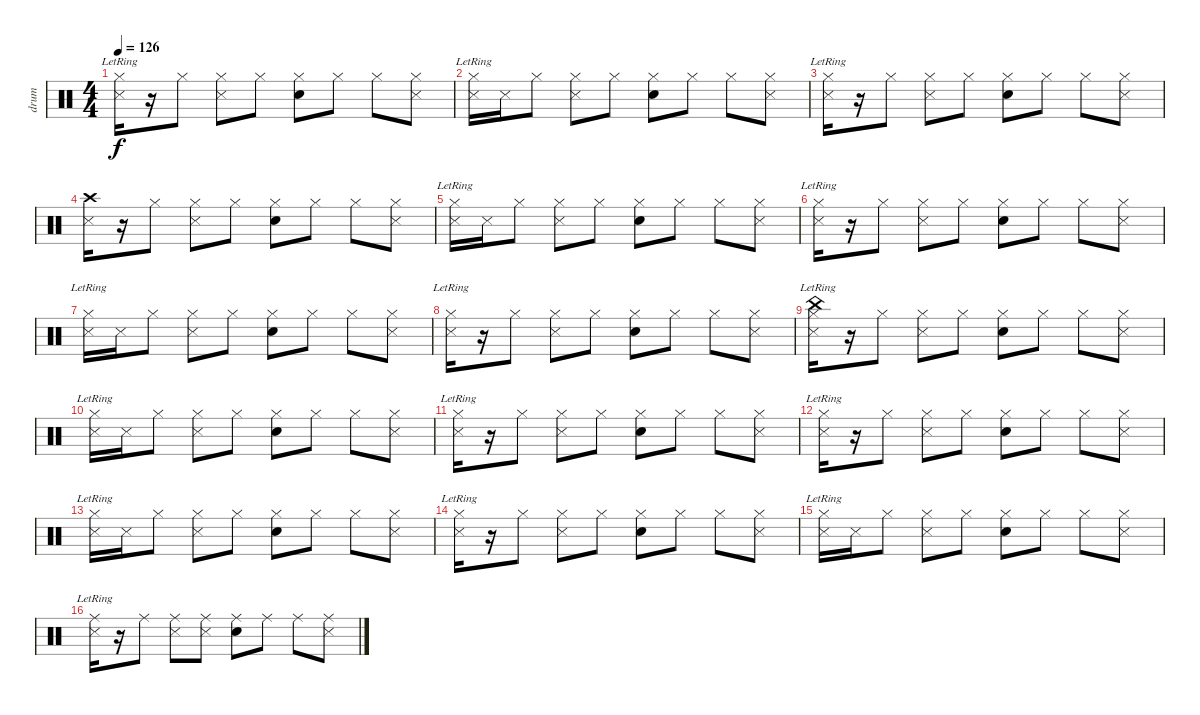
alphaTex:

\track ("drum" "drum") {instrument percussion}
\staff {score}
\articulation defaults
\ts (4 4)
\tempo 126
\clef neutral
\ks c
("Hi-Hat (closed)"{lr} "Metronome (hit)").16{dy f} r.16 "Hi-Hat (closed)".8 ("Hi-Hat (closed)" "Metronome (hit)").8 "Hi-Hat (closed)".8 ("Hi-Hat (closed)" "Snare (hit) 2").8 "Hi-Hat (closed)".8 "Hi-Hat (closed)".8 ("Hi-Hat (closed)" "Metronome (hit)").8 |
("Hi-Hat (closed)"{lr} "Metronome (hit)").16 "Metronome (hit)".16 "Hi-Hat (closed)".8 ("Hi-Hat (closed)" "Metronome (hit)").8 "Hi-Hat (closed)".8 ("Hi-Hat (closed)" "Snare (hit) 2").8 "Hi-Hat (closed)".8 "Hi-Hat (closed)".8 ("Hi-Hat (closed)" "Metronome (hit)").8 |
("Hi-Hat (closed)"{lr} "Metronome (hit)").16 r.16 "Hi-Hat (closed)".8 ("Hi-Hat (closed)" "Metronome (hit)").8 "Hi-Hat (closed)".8 ("Hi-Hat (closed)" "Snare (hit) 2").8 "Hi-Hat (closed)".8 "Hi-Hat (closed)".8 ("Hi-Hat (closed)" "Metronome (hit)").8 |
("Metronome (hit)" "Crash high (hit)").16 r.16 "Hi-Hat (closed)".8 ("Hi-Hat (closed)" "Metronome (hit)").8 "Hi-Hat (closed)".8 ("Hi-Hat (closed)" "Snare (hit) 2").8 "Hi-Hat (closed)".8 "Hi-Hat (closed)".8 ("Hi-Hat (closed)" "Metronome (hit)").8 |
("Hi-Hat (closed)"{lr} "Metronome (hit)").16 "Metronome (hit)".16 "Hi-Hat (closed)".8 ("Hi-Hat (closed)" "Metronome (hit)").8 "Hi-Hat (closed)".8 ("Hi-Hat (closed)" "Snare (hit) 2").8 "Hi-Hat (closed)".8 "Hi-Hat (closed)".8 ("Hi-Hat (closed)" "Metronome (hit)").8 |
("Hi-Hat (closed)"{lr} "Metronome (hit)").16 r.16 "Hi-Hat (closed)".8 ("Hi-Hat (closed)" "Metronome (hit)").8 "Hi-Hat (closed)".8 ("Hi-Hat (closed)" "Snare (hit) 2").8 "Hi-Hat (closed)".8 "Hi-Hat (closed)".8 ("Hi-Hat (closed)" "Metronome (hit)").8 |
("Hi-Hat (closed)"{lr} "Metronome (hit)").16 "Metronome (hit)".16 "Hi-Hat (closed)".8 ("Hi-Hat (closed)" "Metronome (hit)").8 "Hi-Hat (closed)".8 ("Hi-Hat (closed)" "Snare (hit) 2").8 "Hi-Hat (closed)".8 "Hi-Hat (closed)".8 ("Hi-Hat (closed)" "Metronome (hit)").8 |
("Hi-Hat (closed)"{lr} "Metronome (hit)").16 r.16 "Hi-Hat (closed)".8 ("Hi-Hat (closed)" "Metronome (hit)").8 "Hi-Hat (closed)".8 ("Hi-Hat (closed)" "Snare (hit) 2").8 "Hi-Hat (closed)".8 "Hi-Hat (closed)".8 ("Hi-Hat (closed)" "Metronome (hit)").8 |
("Hi-Hat (closed)"{lr} "Metronome (hit)" "China (hit)").16 r.16 "Hi-Hat (closed)".8 ("Hi-Hat (closed)" "Metronome (hit)").8 "Hi-Hat (closed)".8 ("Hi-Hat (closed)" "Snare (hit) 2").8 "Hi-Hat (closed)".8 "Hi-Hat (closed)".8 ("Hi-Hat (closed)" "Metronome (hit)").8 |
("Hi-Hat (closed)"{lr} "Metronome (hit)").16 "Metronome (hit)".16 "Hi-Hat (closed)".8 ("Hi-Hat (closed)" "Metronome (hit)").8 "Hi-Hat (closed)".8 ("Hi-Hat (closed)" "Snare (hit) 2").8 "Hi-Hat (closed)".8 "Hi-Hat (closed)".8 ("Hi-Hat (closed)" "Metronome (hit)").8 |
("Hi-Hat (closed)"{lr} "Metronome (hit)").16 r.16 "Hi-Hat (closed)".8 ("Hi-Hat (closed)" "Metronome (hit)").8 "Hi-Hat (closed)".8 ("Hi-Hat (closed)" "Snare (hit) 2").8 "Hi-Hat (closed)".8 "Hi-Hat (closed)".8 ("Hi-Hat (closed)" "Metronome (hit)").8 |
("Hi-Hat (closed)"{lr} "Metronome (hit)").16 r.16 "Hi-Hat (closed)".8 ("Hi-Hat (closed)" "Metronome (hit)").8 "Hi-Hat (closed)".8 ("Hi-Hat (closed)" "Snare (hit) 2").8 "Hi-Hat (closed)".8 "Hi-Hat (closed)".8 ("Hi-Hat (closed)" "Metronome (hit)").8 |
("Hi-Hat (closed)"{lr} "Metronome (hit)").16 "Metronome (hit)".16 "Hi-Hat (closed)".8 ("Hi-Hat (closed)" "Metronome (hit)").8 "Hi-Hat (closed)".8 ("Hi-Hat (closed)" "Snare (hit) 2").8 "Hi-Hat (closed)".8 "Hi-Hat (closed)".8 ("Hi-Hat (closed)" "Metronome (hit)").8 |
("Hi-Hat (closed)"{lr} "Metronome (hit)").16 r.16 "Hi-Hat (closed)".8 ("Hi-Hat (closed)" "Metronome (hit)").8 "Hi-Hat (closed)".8 ("Hi-Hat (closed)" "Snare (hit) 2").8 "Hi-Hat (closed)".8 "Hi-Hat (closed)".8 ("Hi-Hat (closed)" "Metronome (hit)").8 |
("Hi-Hat (closed)"{lr} "Metronome (hit)").16 "Metronome (hit)".16 "Hi-Hat (closed)".8 ("Hi-Hat (closed)" "Metronome (hit)").8 "Hi-Hat (closed)".8 ("Hi-Hat (closed)" "Snare (hit) 2").8 "Hi-Hat (closed)".8 "Hi-Hat (closed)".8 ("Hi-Hat (closed)" "Metronome (hit)").8 |
("Ride (middle)"{lr} "Metronome (hit)").16 r.16 "Ride (middle)".8 ("Ride (middle)" "Metronome (hit)").8 ("Ride (middle)" "Metronome (hit)").8 ("Ride (middle)" "Snare (hit) 2").8 "Ride (middle)".8 "Ride (middle)".8 ("Ride (middle)" "Metronome (hit)").8
